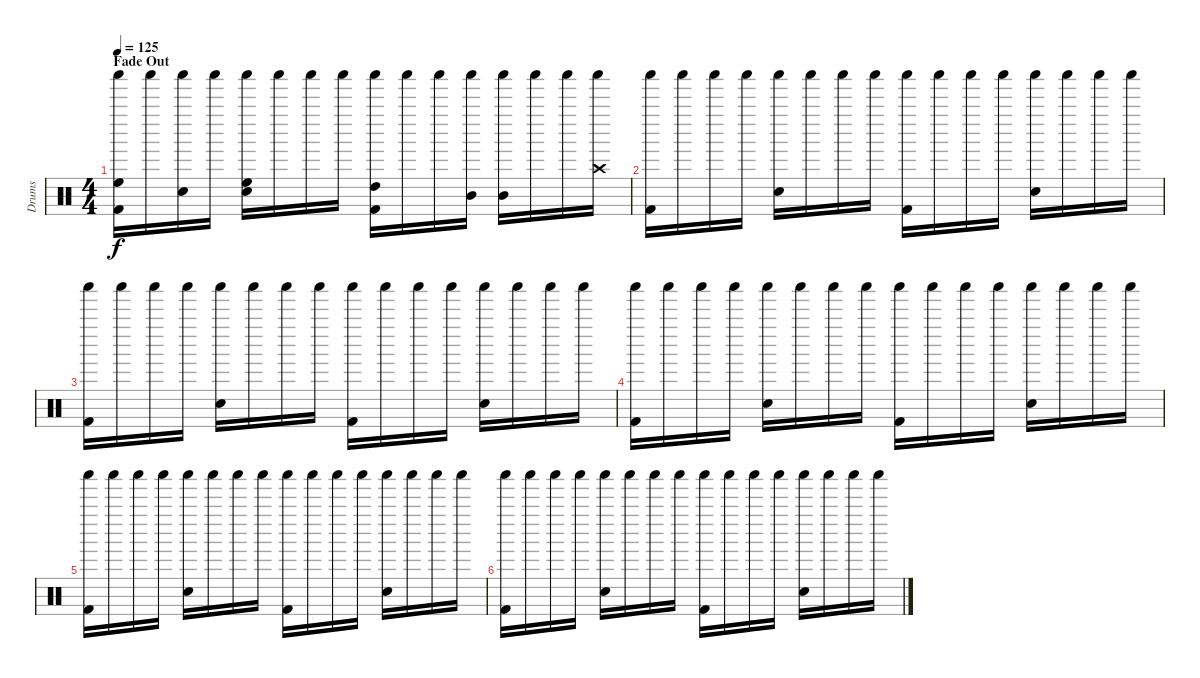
\track ("Drums" "Drums") {instrument percussion}
\staff {score}
\articulation defaults
\ts (4 4)
\section ("" "Fade Out")
\tempo 125
\clef neutral
\ks c
("Shaker (hit)" "High Floor Tom (hit)" "Kick (hit) 2").16{dy f} "Shaker (hit)".16 ("Shaker (hit)" "Electric Snare (hit)").16 "Shaker (hit)".16 ("Shaker (hit)" "High Floor Tom (hit)" "Snare (hit) 2").16 "Shaker (hit)".16 "Shaker (hit)".16 "Shaker (hit)".16 ("Shaker (hit)" "High Tom (hit)" "Kick (hit) 2").16 "Shaker (hit)".16 "Shaker (hit)".16 ("Shaker (hit)" "Mid Tom (hit)").16 ("Shaker (hit)" "Mid Tom (hit)").16 "Shaker (hit)".16 "Shaker (hit)".16 ("Shaker (hit)" "Crash high (hit)").16 |
("Shaker (hit)" "Kick (hit) 2").16 "Shaker (hit)".16 "Shaker (hit)".16 "Shaker (hit)".16 ("Shaker (hit)" "Snare (hit) 2").16 "Shaker (hit)".16 "Shaker (hit)".16 "Shaker (hit)".16 ("Shaker (hit)" "Kick (hit) 2").16 "Shaker (hit)".16 "Shaker (hit)".16 "Shaker (hit)".16 ("Shaker (hit)" "Snare (hit) 2").16 "Shaker (hit)".16 "Shaker (hit)".16 "Shaker (hit)".16 |
("Shaker (hit)" "Kick (hit) 2").16 "Shaker (hit)".16 "Shaker (hit)".16 "Shaker (hit)".16 ("Shaker (hit)" "Snare (hit) 2").16 "Shaker (hit)".16 "Shaker (hit)".16 "Shaker (hit)".16 ("Shaker (hit)" "Kick (hit) 2").16 "Shaker (hit)".16 "Shaker (hit)".16 "Shaker (hit)".16 ("Shaker (hit)" "Snare (hit) 2").16 "Shaker (hit)".16 "Shaker (hit)".16 "Shaker (hit)".16 |
("Shaker (hit)" "Kick (hit) 2").16 "Shaker (hit)".16 "Shaker (hit)".16 "Shaker (hit)".16 ("Shaker (hit)" "Snare (hit) 2").16 "Shaker (hit)".16 "Shaker (hit)".16 "Shaker (hit)".16 ("Shaker (hit)" "Kick (hit) 2").16 "Shaker (hit)".16 "Shaker (hit)".16 "Shaker (hit)".16 ("Shaker (hit)" "Snare (hit) 2").16 "Shaker (hit)".16 "Shaker (hit)".16 "Shaker (hit)".16 |
("Shaker (hit)" "Kick (hit) 2").16 "Shaker (hit)".16 "Shaker (hit)".16 "Shaker (hit)".16 ("Shaker (hit)" "Snare (hit) 2").16 "Shaker (hit)".16 "Shaker (hit)".16 "Shaker (hit)".16 ("Shaker (hit)" "Kick (hit) 2").16 "Shaker (hit)".16 "Shaker (hit)".16 "Shaker (hit)".16 ("Shaker (hit)" "Snare (hit) 2").16 "Shaker (hit)".16 "Shaker (hit)".16 "Shaker (hit)".16 |
("Shaker (hit)" "Kick (hit) 2").16 "Shaker (hit)".16 "Shaker (hit)".16 "Shaker (hit)".16 ("Shaker (hit)" "Snare (hit) 2").16 "Shaker (hit)".16 "Shaker (hit)".16 "Shaker (hit)".16 ("Shaker (hit)" "Kick (hit) 2").16 "Shaker (hit)".16 "Shaker (hit)".16 "Shaker (hit)".16 ("Shaker (hit)" "Snare (hit) 2").16 "Shaker (hit)".16 "Shaker (hit)".16 "Shaker (hit)".16
